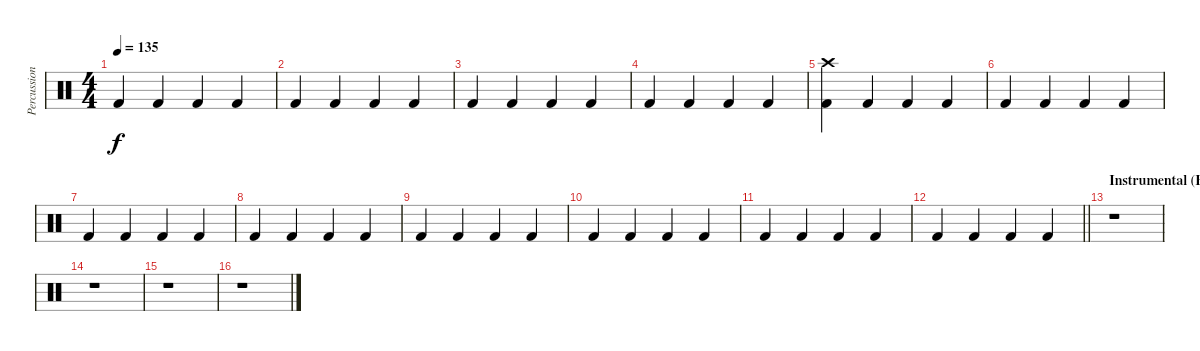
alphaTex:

\track ("Percussion" "Percussion") {instrument percussion}
\staff {score}
\articulation defaults
\ts (4 4)
\tempo 135
\clef neutral
\ks c "Kick (hit) 2".4{dy f} "Kick (hit) 2".4 "Kick (hit) 2".4 "Kick (hit) 2".4
|
"Kick (hit) 2".4 "Kick (hit) 2".4 "Kick (hit) 2".4 "Kick (hit) 2".4 |
"Kick (hit) 2".4 "Kick (hit) 2".4 "Kick (hit) 2".4 "Kick (hit) 2".4 |
"Kick (hit) 2".4 "Kick (hit) 2".4 "Kick (hit) 2".4 "Kick (hit) 2".4 |
("Kick (hit) 2" "Crash high (hit)").4 "Kick (hit) 2".4 "Kick (hit) 2".4 "Kick (hit) 2".4 |
"Kick (hit) 2".4 "Kick (hit) 2".4 "Kick (hit) 2".4 "Kick (hit) 2".4 |
"Kick (hit) 2".4 "Kick (hit) 2".4 "Kick (hit) 2".4 "Kick (hit) 2".4 |
"Kick (hit) 2".4 "Kick (hit) 2".4 "Kick (hit) 2".4 "Kick (hit) 2".4 |
"Kick (hit) 2".4 "Kick (hit) 2".4 "Kick (hit) 2".4 "Kick (hit) 2".4 |
"Kick (hit) 2".4 "Kick (hit) 2".4 "Kick (hit) 2".4 "Kick (hit) 2".4 |
"Kick (hit) 2".4 "Kick (hit) 2".4 "Kick (hit) 2".4 "Kick (hit) 2".4 |
\barLineRight lightlight "Kick (hit) 2".4 "Kick (hit) 2".4 "Kick (hit) 2".4 "Kick (hit) 2".4
|
\section ("" "Instrumental (Bridge)")
r.1 |
r.1 |
r.1 |
r.1
